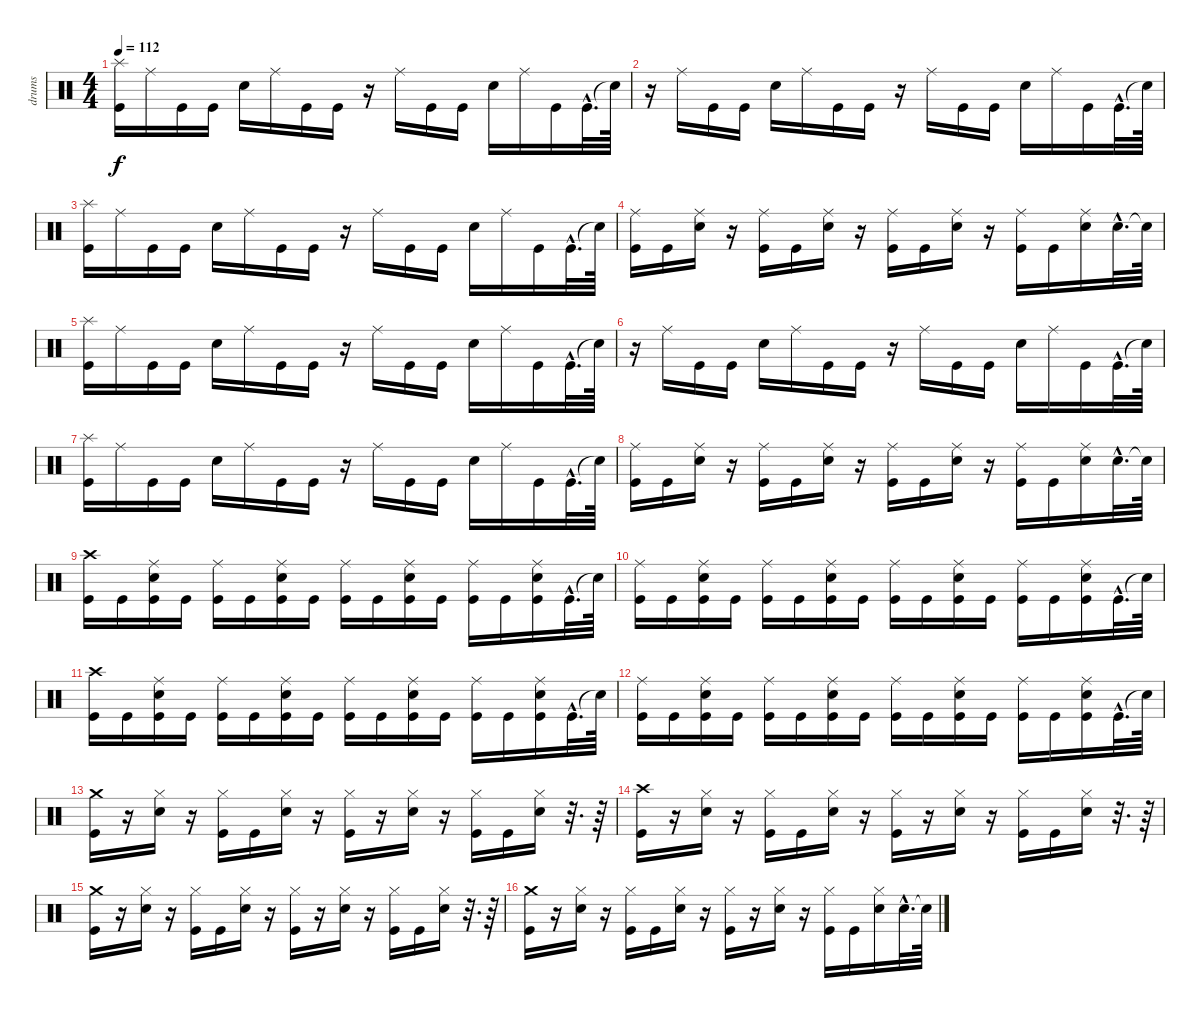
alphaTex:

\track ("drums" "drums") {instrument percussion}
\staff {score}
\articulation defaults
\ts (4 4)
\tempo 112
\clef neutral
\ks c
("Splash (hit)" "Kick (hit)").16{dy f} "Ride (middle)".16 "Kick (hit)".16 "Kick (hit)".16 "Electric Snare (hit)".16 "Ride (middle)".16 "Kick (hit)".16 "Kick (hit)".16 r.16 "Ride (middle)".16 "Kick (hit)".16 "Kick (hit)".16 "Electric Snare (hit)".16 "Ride (middle)".16 "Kick (hit)".16 "Kick (hit)"{hac}.32{d} "Snare (hit)"{t}.64 |
r.16 "Ride (middle)".16 "Kick (hit)".16 "Kick (hit)".16 "Electric Snare (hit)".16 "Ride (middle)".16 "Kick (hit)".16 "Kick (hit)".16 r.16 "Ride (middle)".16 "Kick (hit)".16 "Kick (hit)".16 "Electric Snare (hit)".16 "Ride (middle)".16 "Kick (hit)".16 "Kick (hit)"{hac}.32{d} "Snare (hit)"{t}.64 |
("Splash (hit)" "Kick (hit)").16 "Ride (middle)".16 "Kick (hit)".16 "Kick (hit)".16 "Electric Snare (hit)".16 "Ride (middle)".16 "Kick (hit)".16 "Kick (hit)".16 r.16 "Ride (middle)".16 "Kick (hit)".16 "Kick (hit)".16 "Electric Snare (hit)".16 "Ride (middle)".16 "Kick (hit)".16 "Kick (hit)"{hac}.32{d} "Snare (hit)"{t}.64 |
("Ride (middle)" "Kick (hit)").16 "Kick (hit)".16 ("Ride (middle)" "Electric Snare (hit)").16 r.16 ("Ride (middle)" "Kick (hit)").16 "Kick (hit)".16 ("Ride (middle)" "Electric Snare (hit)").16 r.16 ("Ride (middle)" "Kick (hit)").16 "Kick (hit)".16 ("Ride (middle)" "Electric Snare (hit)").16 r.16 ("Ride (middle)" "Kick (hit)").16 "Kick (hit)".16 ("Ride (middle)" "Electric Snare (hit)").16 "Electric Snare (hit)"{hac}.32{d} "Snare (hit)"{t}.64 |
("Splash (hit)" "Kick (hit)").16 "Ride (middle)".16 "Kick (hit)".16 "Kick (hit)".16 "Electric Snare (hit)".16 "Ride (middle)".16 "Kick (hit)".16 "Kick (hit)".16 r.16 "Ride (middle)".16 "Kick (hit)".16 "Kick (hit)".16 "Electric Snare (hit)".16 "Ride (middle)".16 "Kick (hit)".16 "Kick (hit)"{hac}.32{d} "Snare (hit)"{t}.64 |
r.16 "Ride (middle)".16 "Kick (hit)".16 "Kick (hit)".16 "Electric Snare (hit)".16 "Ride (middle)".16 "Kick (hit)".16 "Kick (hit)".16 r.16 "Ride (middle)".16 "Kick (hit)".16 "Kick (hit)".16 "Electric Snare (hit)".16 "Ride (middle)".16 "Kick (hit)".16 "Kick (hit)"{hac}.32{d} "Snare (hit)"{t}.64 |
("Splash (hit)" "Kick (hit)").16 "Ride (middle)".16 "Kick (hit)".16 "Kick (hit)".16 "Electric Snare (hit)".16 "Ride (middle)".16 "Kick (hit)".16 "Kick (hit)".16 r.16 "Ride (middle)".16 "Kick (hit)".16 "Kick (hit)".16 "Electric Snare (hit)".16 "Ride (middle)".16 "Kick (hit)".16 "Kick (hit)"{hac}.32{d} "Snare (hit)"{t}.64 |
("Ride (middle)" "Kick (hit)").16 "Kick (hit)".16 ("Ride (middle)" "Electric Snare (hit)").16 r.16 ("Ride (middle)" "Kick (hit)").16 "Kick (hit)".16 ("Ride (middle)" "Electric Snare (hit)").16 r.16 ("Ride (middle)" "Kick (hit)").16 "Kick (hit)".16 ("Ride (middle)" "Electric Snare (hit)").16 r.16 ("Ride (middle)" "Kick (hit)").16 "Kick (hit)".16 ("Ride (middle)" "Electric Snare (hit)").16 "Electric Snare (hit)"{hac}.32{d} "Snare (hit)"{t}.64 |
("Crash high (hit)" "Kick (hit)").16 "Kick (hit)".16 ("Ride (middle)" "Kick (hit)" "Electric Snare (hit)").16 "Kick (hit)".16 ("Ride (middle)" "Kick (hit)").16 "Kick (hit)".16 ("Ride (middle)" "Kick (hit)" "Electric Snare (hit)").16 "Kick (hit)".16 ("Ride (middle)" "Kick (hit)").16 "Kick (hit)".16 ("Ride (middle)" "Kick (hit)" "Electric Snare (hit)").16 "Kick (hit)".16 ("Ride (middle)" "Kick (hit)").16 "Kick (hit)".16 ("Ride (middle)" "Kick (hit)" "Electric Snare (hit)").16 "Kick (hit)"{hac}.32{d} "Snare (hit)"{t}.64 |
("Ride (middle)" "Kick (hit)").16 "Kick (hit)".16 ("Ride (middle)" "Kick (hit)" "Electric Snare (hit)").16 "Kick (hit)".16 ("Ride (middle)" "Kick (hit)").16 "Kick (hit)".16 ("Ride (middle)" "Kick (hit)" "Electric Snare (hit)").16 "Kick (hit)".16 ("Ride (middle)" "Kick (hit)").16 "Kick (hit)".16 ("Ride (middle)" "Kick (hit)" "Electric Snare (hit)").16 "Kick (hit)".16 ("Ride (middle)" "Kick (hit)").16 "Kick (hit)".16 ("Ride (middle)" "Kick (hit)" "Electric Snare (hit)").16 "Kick (hit)"{hac}.32{d} "Snare (hit)"{t}.64 |
("Crash high (hit)" "Kick (hit)").16 "Kick (hit)".16 ("Ride (middle)" "Kick (hit)" "Electric Snare (hit)").16 "Kick (hit)".16 ("Ride (middle)" "Kick (hit)").16 "Kick (hit)".16 ("Ride (middle)" "Kick (hit)" "Electric Snare (hit)").16 "Kick (hit)".16 ("Ride (middle)" "Kick (hit)").16 "Kick (hit)".16 ("Ride (middle)" "Kick (hit)" "Electric Snare (hit)").16 "Kick (hit)".16 ("Ride (middle)" "Kick (hit)").16 "Kick (hit)".16 ("Ride (middle)" "Kick (hit)" "Electric Snare (hit)").16 "Kick (hit)"{hac}.32{d} "Snare (hit)"{t}.64 |
("Ride (middle)" "Kick (hit)").16 "Kick (hit)".16 ("Ride (middle)" "Kick (hit)" "Electric Snare (hit)").16 "Kick (hit)".16 ("Ride (middle)" "Kick (hit)").16 "Kick (hit)".16 ("Ride (middle)" "Kick (hit)" "Electric Snare (hit)").16 "Kick (hit)".16 ("Ride (middle)" "Kick (hit)").16 "Kick (hit)".16 ("Ride (middle)" "Kick (hit)" "Electric Snare (hit)").16 "Kick (hit)".16 ("Ride (middle)" "Kick (hit)").16 "Kick (hit)".16 ("Ride (middle)" "Kick (hit)" "Electric Snare (hit)").16 "Kick (hit)"{hac}.32{d} "Snare (hit)"{t}.64 |
("Kick (hit)" "Crash medium (hit)").16 r.16 ("Hi-Hat (closed)" "Electric Snare (hit)").16 r.16 ("Hi-Hat (closed)" "Kick (hit)").16 "Kick (hit)".16 ("Hi-Hat (closed)" "Electric Snare (hit)").16 r.16 ("Hi-Hat (closed)" "Kick (hit)").16 r.16 ("Hi-Hat (closed)" "Electric Snare (hit)").16 r.16 ("Hi-Hat (closed)" "Kick (hit)").16 "Kick (hit)".16 ("Hi-Hat (closed)" "Electric Snare (hit)").16 r.32{d} r.64 |
("Kick (hit)" "Crash high (hit)").16 r.16 ("Hi-Hat (closed)" "Electric Snare (hit)").16 r.16 ("Hi-Hat (closed)" "Kick (hit)").16 "Kick (hit)".16 ("Hi-Hat (closed)" "Electric Snare (hit)").16 r.16 ("Hi-Hat (closed)" "Kick (hit)").16 r.16 ("Hi-Hat (closed)" "Electric Snare (hit)").16 r.16 ("Hi-Hat (closed)" "Kick (hit)").16 "Kick (hit)".16 ("Hi-Hat (closed)" "Electric Snare (hit)").16 r.32{d} r.64 |
("Kick (hit)" "Crash medium (hit)").16 r.16 ("Hi-Hat (closed)" "Electric Snare (hit)").16 r.16 ("Hi-Hat (closed)" "Kick (hit)").16 "Kick (hit)".16 ("Hi-Hat (closed)" "Electric Snare (hit)").16 r.16 ("Hi-Hat (closed)" "Kick (hit)").16 r.16 ("Hi-Hat (closed)" "Electric Snare (hit)").16 r.16 ("Hi-Hat (closed)" "Kick (hit)").16 "Kick (hit)".16 ("Hi-Hat (closed)" "Electric Snare (hit)").16 r.32{d} r.64 |
("Kick (hit)" "Crash medium (hit)").16 r.16 ("Hi-Hat (closed)" "Electric Snare (hit)").16 r.16 ("Hi-Hat (closed)" "Kick (hit)").16 "Kick (hit)".16 ("Hi-Hat (closed)" "Electric Snare (hit)").16 r.16 ("Hi-Hat (closed)" "Kick (hit)").16 r.16 ("Hi-Hat (closed)" "Electric Snare (hit)").16 r.16 ("Hi-Hat (closed)" "Kick (hit)").16 "Kick (hit)".16 ("Hi-Hat (closed)" "Electric Snare (hit)").16 "Electric Snare (hit)"{hac}.32{d} "Snare (hit)"{t}.64
